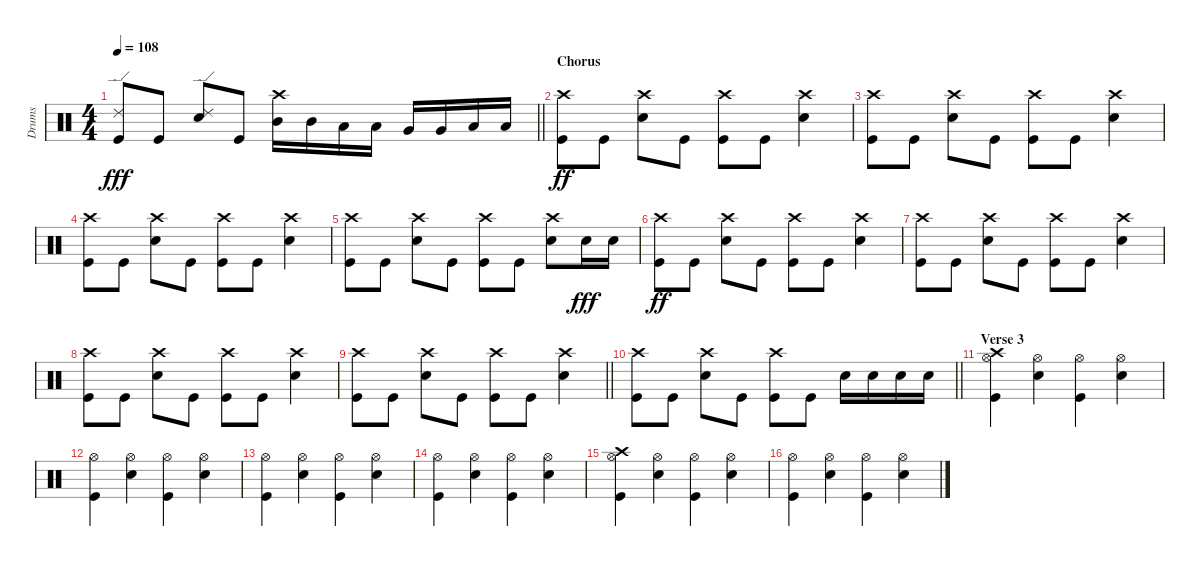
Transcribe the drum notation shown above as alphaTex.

\track ("Drums" "Drums") {instrument percussion}
\staff {score}
\articulation defaults
\ts (4 4)
\tempo 108
\clef neutral
\barLineRight lightlight
\ks c
("Ride (edge) 2" "Kick (hit)").8{dy fff} "Kick (hit)".8 ("Ride (edge) 2" "Snare (hit) 2").8 "Kick (hit)".8 ("Crash high (hit)" "Mid Tom (hit)").16 "Mid Tom (hit)".16 "Low Tom (hit)".16 "Low Tom (hit)".16 "Very Low Tom (hit)".16 "Very Low Tom (hit)".16 "Low Floor Tom (hit)".16 "Low Floor Tom (hit)".16 |
\section ("" "Chorus")
("Crash high (hit)" "Kick (hit)").8{dy ff} "Kick (hit)".8 ("Crash high (hit)" "Snare (hit) 2").8 "Kick (hit)".8 ("Crash high (hit)" "Kick (hit)").8 "Kick (hit)".8 ("Crash high (hit)" "Snare (hit) 2").4 |
("Crash high (hit)" "Kick (hit)").8 "Kick (hit)".8 ("Crash high (hit)" "Snare (hit) 2").8 "Kick (hit)".8 ("Crash high (hit)" "Kick (hit)").8 "Kick (hit)".8 ("Crash high (hit)" "Snare (hit) 2").4 |
("Crash high (hit)" "Kick (hit)").8 "Kick (hit)".8 ("Crash high (hit)" "Snare (hit) 2").8 "Kick (hit)".8 ("Crash high (hit)" "Kick (hit)").8 "Kick (hit)".8 ("Crash high (hit)" "Snare (hit) 2").4 |
("Crash high (hit)" "Kick (hit)").8 "Kick (hit)".8 ("Crash high (hit)" "Snare (hit) 2").8 "Kick (hit)".8 ("Crash high (hit)" "Kick (hit)").8 "Kick (hit)".8 ("Crash high (hit)" "Snare (hit) 2").8 "Snare (hit) 2".16{dy fff} "Snare (hit) 2".16 |
("Crash high (hit)" "Kick (hit)").8{dy ff} "Kick (hit)".8 ("Crash high (hit)" "Snare (hit) 2").8 "Kick (hit)".8 ("Crash high (hit)" "Kick (hit)").8 "Kick (hit)".8 ("Crash high (hit)" "Snare (hit) 2").4 |
("Crash high (hit)" "Kick (hit)").8 "Kick (hit)".8 ("Crash high (hit)" "Snare (hit) 2").8 "Kick (hit)".8 ("Crash high (hit)" "Kick (hit)").8 "Kick (hit)".8 ("Crash high (hit)" "Snare (hit) 2").4 |
("Crash high (hit)" "Kick (hit)").8 "Kick (hit)".8 ("Crash high (hit)" "Snare (hit) 2").8 "Kick (hit)".8 ("Crash high (hit)" "Kick (hit)").8 "Kick (hit)".8 ("Crash high (hit)" "Snare (hit) 2").4 |
\barLineRight lightlight
("Crash high (hit)" "Kick (hit)").8 "Kick (hit)".8 ("Crash high (hit)" "Snare (hit) 2").8 "Kick (hit)".8 ("Crash high (hit)" "Kick (hit)").8 "Kick (hit)".8 ("Crash high (hit)" "Snare (hit) 2").4 |
\barLineRight lightlight
("Crash high (hit)" "Kick (hit)").8 "Kick (hit)".8 ("Crash high (hit)" "Snare (hit) 2").8 "Kick (hit)".8 ("Crash high (hit)" "Kick (hit)").8 "Kick (hit)".8 "Snare (hit) 2".16 "Snare (hit) 2".16 "Snare (hit) 2".16 "Snare (hit) 2".16 |
\section ("" "Verse 3")
("Crash high (hit)" "Hi-Hat (open)" "Kick (hit)").4 ("Hi-Hat (open)" "Snare (hit) 2").4 ("Hi-Hat (open)" "Kick (hit)").4 ("Hi-Hat (open)" "Snare (hit) 2").4 |
("Hi-Hat (open)" "Kick (hit)").4 ("Hi-Hat (open)" "Snare (hit) 2").4 ("Hi-Hat (open)" "Kick (hit)").4 ("Hi-Hat (open)" "Snare (hit) 2").4 |
("Hi-Hat (open)" "Kick (hit)").4 ("Hi-Hat (open)" "Snare (hit) 2").4 ("Hi-Hat (open)" "Kick (hit)").4 ("Hi-Hat (open)" "Snare (hit) 2").4 |
("Hi-Hat (open)" "Kick (hit)").4 ("Hi-Hat (open)" "Snare (hit) 2").4 ("Hi-Hat (open)" "Kick (hit)").4 ("Hi-Hat (open)" "Snare (hit) 2").4 |
("Crash high (hit)" "Hi-Hat (open)" "Kick (hit)").4 ("Hi-Hat (open)" "Snare (hit) 2").4 ("Hi-Hat (open)" "Kick (hit)").4 ("Hi-Hat (open)" "Snare (hit) 2").4 |
("Hi-Hat (open)" "Kick (hit)").4 ("Hi-Hat (open)" "Snare (hit) 2").4 ("Hi-Hat (open)" "Kick (hit)").4 ("Hi-Hat (open)" "Snare (hit) 2").4
